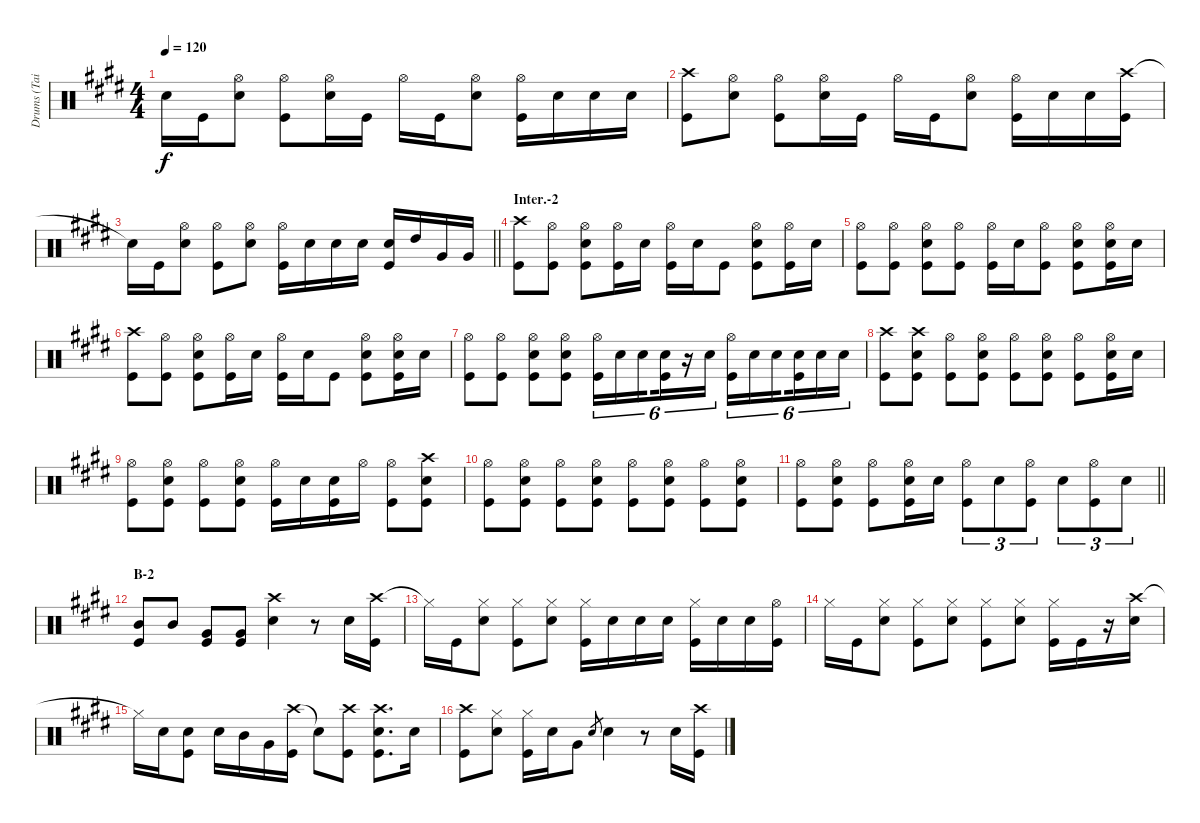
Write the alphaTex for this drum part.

\track ("Drums (Tainaka Ritsu)" "Drums (Tai") {instrument percussion}
\staff {score}
\articulation defaults
\ts (4 4)
\tempo 120
\clef neutral
\ks e "Snare (hit)"{t}.16{dy f} "Kick (hit)".16
("Hi-Hat (open)" "Snare (hit) 2").8 ("Hi-Hat (open)" "Kick (hit)").8 ("Hi-Hat (open)" "Snare (hit) 2").16 "Kick (hit)".16 "Hi-Hat (open)".16 "Kick (hit)".16 ("Hi-Hat (open)" "Snare (hit) 2").8 ("Hi-Hat (open)" "Kick (hit)").16 "Snare (hit) 2".16 "Snare (hit) 2".16 "Snare (hit) 2".16 |
("Crash high (hit)" "Kick (hit)").8 ("Hi-Hat (open)" "Snare (hit) 2").8 ("Hi-Hat (open)" "Kick (hit)").8 ("Hi-Hat (open)" "Snare (hit) 2").16 "Kick (hit)".16 "Hi-Hat (open)".16 "Kick (hit)".16 ("Hi-Hat (open)" "Snare (hit) 2").8 ("Hi-Hat (open)" "Kick (hit)").16 "Snare (hit) 2".16 "Snare (hit) 2".16 ("Crash high (hit)" "Kick (hit)").16 |
\barLineRight lightlight "Snare (hit)"{t}.16 "Kick (hit)".16
("Hi-Hat (open)" "Snare (hit) 2").8 ("Hi-Hat (open)" "Kick (hit)").8 ("Hi-Hat (open)" "Snare (hit) 2").8 ("Hi-Hat (open)" "Kick (hit)").16 "Snare (hit) 2".16 "Snare (hit) 2".16 "Snare (hit) 2".16 ("Snare (hit) 2" "Kick (hit)").16 "High Tom (hit)".16 "Very Low Tom (hit)".16 "Very Low Tom (hit)".16 |
\section ("" "Inter.-2")
("Crash high (hit)" "Kick (hit)").8 ("Hi-Hat (open)" "Kick (hit)").8 ("Hi-Hat (open)" "Snare (hit) 2" "Kick (hit)").8 ("Hi-Hat (open)" "Kick (hit)").16 "Snare (hit) 2".16 ("Hi-Hat (open)" "Kick (hit)").16 "Snare (hit) 2".16 "Kick (hit)".8 ("Hi-Hat (open)" "Snare (hit) 2" "Kick (hit)").8 ("Hi-Hat (open)" "Kick (hit)").16 "Snare (hit) 2".16 |
("Hi-Hat (open)" "Kick (hit)").8 ("Hi-Hat (open)" "Kick (hit)").8 ("Hi-Hat (open)" "Snare (hit) 2" "Kick (hit)").8 ("Hi-Hat (open)" "Kick (hit)").8 ("Hi-Hat (open)" "Kick (hit)").16 "Snare (hit) 2".16 ("Hi-Hat (open)" "Kick (hit)").8 ("Hi-Hat (open)" "Snare (hit) 2" "Kick (hit)").8 ("Hi-Hat (open)" "Snare (hit) 2" "Kick (hit)").16 "Snare (hit) 2".16 |
("Crash high (hit)" "Kick (hit)").8 ("Hi-Hat (open)" "Kick (hit)").8 ("Hi-Hat (open)" "Snare (hit) 2" "Kick (hit)").8 ("Hi-Hat (open)" "Kick (hit)").16 "Snare (hit) 2".16 ("Hi-Hat (open)" "Kick (hit)").16 "Snare (hit) 2".16 "Kick (hit)".8 ("Hi-Hat (open)" "Snare (hit) 2" "Kick (hit)").8 ("Hi-Hat (open)" "Snare (hit) 2" "Kick (hit)").16 "Snare (hit) 2".16 |
("Hi-Hat (open)" "Kick (hit)").8 ("Hi-Hat (open)" "Kick (hit)").8 ("Hi-Hat (open)" "Snare (hit) 2" "Kick (hit)").8 ("Hi-Hat (open)" "Snare (hit) 2" "Kick (hit)").8 ("Hi-Hat (open)" "Kick (hit)").16{tu (6 4)} "Snare (hit) 2".16{tu (6 4)} "Snare (hit) 2".16{tu (6 4) beam splitsecondary} ("Snare (hit) 2" "Kick (hit)").16{tu (6 4)} r.16{tu (6 4)} "Snare (hit) 2".16{tu (6 4)} ("Hi-Hat (open)" "Kick (hit)").16{tu (6 4)} "Snare (hit) 2".16{tu (6 4)} "Snare (hit) 2".16{tu (6 4) beam splitsecondary} ("Snare (hit) 2" "Kick (hit)").16{tu (6 4)} "Snare (hit) 2".16{tu (6 4)} "Snare (hit) 2".16{tu (6 4)} |
("Crash high (hit)" "Kick (hit)").8 ("Crash high (hit)" "Snare (hit) 2" "Kick (hit)").8 ("Hi-Hat (open)" "Kick (hit)").8 ("Hi-Hat (open)" "Snare (hit) 2" "Kick (hit)").8 ("Hi-Hat (open)" "Kick (hit)").8 ("Hi-Hat (open)" "Snare (hit) 2" "Kick (hit)").8 ("Hi-Hat (open)" "Kick (hit)").8 ("Hi-Hat (open)" "Snare (hit) 2" "Kick (hit)").16 "Snare (hit) 2".16 |
("Hi-Hat (open)" "Kick (hit)").8 ("Hi-Hat (open)" "Snare (hit) 2" "Kick (hit)").8 ("Hi-Hat (open)" "Kick (hit)").8 ("Hi-Hat (open)" "Snare (hit) 2" "Kick (hit)").8 ("Hi-Hat (open)" "Kick (hit)").16 "Snare (hit) 2".16 ("Snare (hit) 2" "Kick (hit)").16 "Hi-Hat (open)".16 ("Hi-Hat (open)" "Kick (hit)").8 ("Crash high (hit)" "Snare (hit) 2" "Kick (hit)").8 |
("Hi-Hat (open)" "Kick (hit)").8 ("Hi-Hat (open)" "Snare (hit) 2" "Kick (hit)").8 ("Hi-Hat (open)" "Kick (hit)").8 ("Hi-Hat (open)" "Snare (hit) 2" "Kick (hit)").8 ("Hi-Hat (open)" "Kick (hit)").8 ("Hi-Hat (open)" "Snare (hit) 2" "Kick (hit)").8 ("Hi-Hat (open)" "Kick (hit)").8 ("Hi-Hat (open)" "Snare (hit) 2" "Kick (hit)").8 |
\barLineRight lightlight
("Hi-Hat (open)" "Kick (hit)").8 ("Hi-Hat (open)" "Snare (hit) 2" "Kick (hit)").8 ("Hi-Hat (open)" "Kick (hit)").8 ("Hi-Hat (open)" "Snare (hit) 2" "Kick (hit)").16 "Snare (hit) 2".16 ("Hi-Hat (open)" "Kick (hit)").8{tu (3 2)} "Snare (hit) 2".8{tu (3 2)} ("Hi-Hat (open)" "Kick (hit)").8{tu (3 2)} "Snare (hit) 2".8{tu (3 2)} ("Hi-Hat (open)" "Kick (hit)").8{tu (3 2)} "Snare (hit) 2".8{tu (3 2)} |
\section ("" "B-2")
("Mid Tom (hit)" "Kick (hit)").8 "Mid Tom (hit)".8 ("Very Low Tom (hit)" "Kick (hit)").8 ("Very Low Tom (hit)" "Kick (hit)").8 ("Crash high (hit)" "Snare (hit) 2").4 r.8 "Snare (hit) 2".16 ("Crash high (hit)" "Kick (hit)").16 |
"Hi-Hat (closed)"{t}.16 "Kick (hit)".16 ("Hi-Hat (closed)" "Snare (hit) 2").8 ("Hi-Hat (closed)" "Kick (hit)").8 ("Hi-Hat (closed)" "Snare (hit) 2").8 ("Hi-Hat (closed)" "Kick (hit)").16 "Snare (hit) 2".16 "Snare (hit) 2".16 "Snare (hit) 2".16 ("Hi-Hat (closed)" "Kick (hit)").16 "Snare (hit) 2".16 "Snare (hit) 2".16 ("Hi-Hat (open)" "Kick (hit)").16 |
"Hi-Hat (closed)".16 "Kick (hit)".16 ("Hi-Hat (closed)" "Snare (hit) 2").8 ("Hi-Hat (closed)" "Kick (hit)").8 ("Hi-Hat (closed)" "Snare (hit) 2").8 ("Hi-Hat (closed)" "Kick (hit)").8 ("Hi-Hat (closed)" "Snare (hit) 2").8 ("Hi-Hat (closed)" "Kick (hit)").16 "Kick (hit)".16 r.16 ("Crash high (hit)" "Snare (hit) 2").16 |
"Hi-Hat (closed)"{t}.16 "Snare (hit) 2".16 ("Snare (hit) 2" "Kick (hit)").8 "Snare (hit) 2".16 "Mid Tom (hit)".16 "Very Low Tom (hit)".16 ("Crash high (hit)" "Kick (hit)").16 "Snare (hit)"{t}.8 ("Crash high (hit)" "Kick (hit)").8 ("Crash high (hit)" "Snare (hit) 2" "Kick (hit)").8{d} "Snare (hit) 2".16 |
("Crash high (hit)" "Kick (hit)").8 ("Hi-Hat (closed)" "Snare (hit) 2").8 ("Hi-Hat (closed)" "Kick (hit)").16 "Snare (hit) 2".16 "Very Low Tom (hit)".8 "Snare (hit) 2".8{gr} "Snare (hit) 2".4 r.8 "Snare (hit) 2".16 ("Crash high (hit)" "Kick (hit)").16
